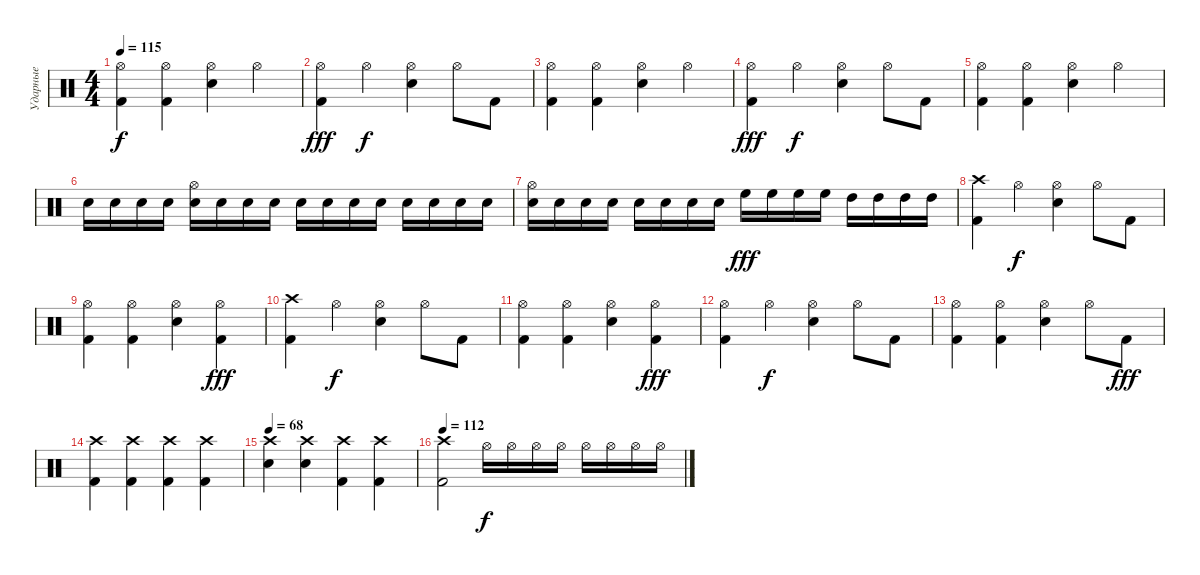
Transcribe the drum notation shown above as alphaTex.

\track ("Ударные" "Ударные") {instrument percussion}
\staff {score}
\articulation defaults
\ts (4 4)
\tempo 115
\clef neutral
\ks c
("Kick (hit) 2" "Hi-Hat (open)").4{dy f} ("Kick (hit) 2" "Hi-Hat (open)").4 ("Snare (hit) 2" "Hi-Hat (open)").4 "Hi-Hat (open)".4 |
("Kick (hit) 2" "Hi-Hat (open)").4{dy fff} "Hi-Hat (open)".4{dy f} ("Snare (hit) 2" "Hi-Hat (open)").4 "Hi-Hat (open)".8 "Kick (hit) 2".8 |
("Kick (hit) 2" "Hi-Hat (open)").4 ("Kick (hit) 2" "Hi-Hat (open)").4 ("Snare (hit) 2" "Hi-Hat (open)").4 "Hi-Hat (open)".4 |
("Kick (hit) 2" "Hi-Hat (open)").4{dy fff} "Hi-Hat (open)".4{dy f} ("Snare (hit) 2" "Hi-Hat (open)").4 "Hi-Hat (open)".8 "Kick (hit) 2".8 |
("Kick (hit) 2" "Hi-Hat (open)").4 ("Kick (hit) 2" "Hi-Hat (open)").4 ("Snare (hit) 2" "Hi-Hat (open)").4 "Hi-Hat (open)".4 |
"Snare (hit) 2".16 "Snare (hit) 2".16 "Snare (hit) 2".16 "Snare (hit) 2".16 ("Snare (hit) 2" "Hi-Hat (open)").16 "Snare (hit) 2".16 "Snare (hit) 2".16 "Snare (hit) 2".16 "Snare (hit) 2".16 "Snare (hit) 2".16 "Snare (hit) 2".16 "Snare (hit) 2".16 "Snare (hit) 2".16 "Snare (hit) 2".16 "Snare (hit) 2".16 "Snare (hit) 2".16 |
("Snare (hit) 2" "Hi-Hat (open)").16 "Snare (hit) 2".16 "Snare (hit) 2".16 "Snare (hit) 2".16 "Snare (hit) 2".16 "Snare (hit) 2".16 "Snare (hit) 2".16 "Snare (hit) 2".16 "High Floor Tom (hit)".16{dy fff} "High Floor Tom (hit)".16 "High Floor Tom (hit)".16 "High Floor Tom (hit)".16 "High Tom (hit)".16 "High Tom (hit)".16 "High Tom (hit)".16 "High Tom (hit)".16 |
("Kick (hit) 2" "Crash high (hit)").4 "Hi-Hat (open)".4{dy f} ("Snare (hit) 2" "Hi-Hat (open)").4 "Hi-Hat (open)".8 "Kick (hit) 2".8 |
("Kick (hit) 2" "Hi-Hat (open)").4 ("Kick (hit) 2" "Hi-Hat (open)").4 ("Snare (hit) 2" "Hi-Hat (open)").4 ("Kick (hit) 2" "Hi-Hat (open)").4{dy fff} |
("Kick (hit) 2" "Crash high (hit)").4 "Hi-Hat (open)".4{dy f} ("Snare (hit) 2" "Hi-Hat (open)").4 "Hi-Hat (open)".8 "Kick (hit) 2".8 |
("Kick (hit) 2" "Hi-Hat (open)").4 ("Kick (hit) 2" "Hi-Hat (open)").4 ("Snare (hit) 2" "Hi-Hat (open)").4 ("Kick (hit) 2" "Hi-Hat (open)").4{dy fff} |
("Kick (hit) 2" "Hi-Hat (open)").4 "Hi-Hat (open)".4{dy f} ("Snare (hit) 2" "Hi-Hat (open)").4 "Hi-Hat (open)".8 "Kick (hit) 2".8 |
("Kick (hit) 2" "Hi-Hat (open)").4 ("Kick (hit) 2" "Hi-Hat (open)").4 ("Snare (hit) 2" "Hi-Hat (open)").4 "Hi-Hat (open)".8 "Kick (hit) 2".8{dy fff} |
("Kick (hit) 2" "Crash high (hit)").4 ("Kick (hit) 2" "Crash high (hit)").4 ("Kick (hit) 2" "Crash high (hit)").4 ("Kick (hit) 2" "Crash high (hit)").4 |
\tempo 68
("Snare (hit) 2" "Crash high (hit)").4 ("Snare (hit) 2" "Crash high (hit)").4 ("Kick (hit) 2" "Crash high (hit)").4 ("Kick (hit) 2" "Crash high (hit)").4 |
\tempo 112
("Kick (hit) 2" "Crash high (hit)").2 "Hi-Hat (open)".16{dy f} "Hi-Hat (open)".16 "Hi-Hat (open)".16 "Hi-Hat (open)".16 "Hi-Hat (open)".16 "Hi-Hat (open)".16 "Hi-Hat (open)".16 "Hi-Hat (open)".16
